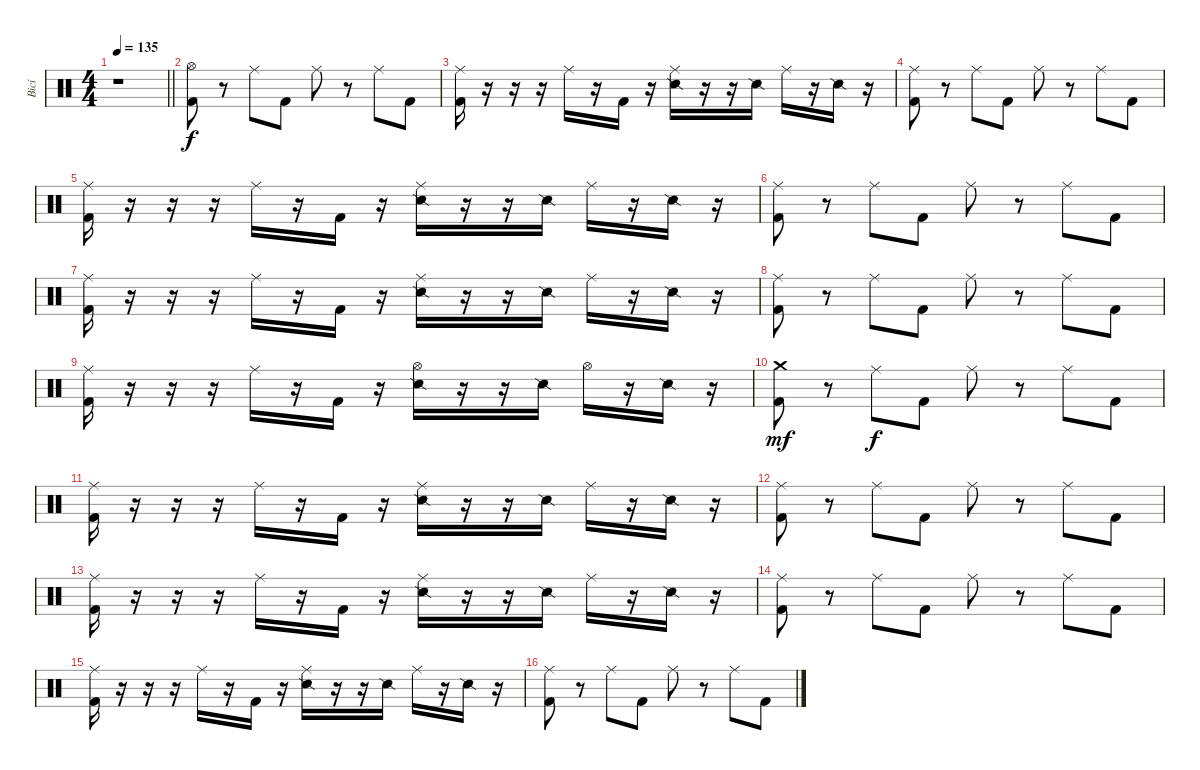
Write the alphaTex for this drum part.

\track ("Bicí" "Bicí") {instrument percussion}
\staff {score}
\articulation defaults
\ts (4 4)
\tempo 135
\clef neutral
\barLineRight lightlight
\ks c
r.1{dy f} |
("Hi-Hat (open)" "Kick (hit) 2").8 r.8 "Ride (middle)".8 "Kick (hit) 2".8 "Ride (middle)".8 r.8 "Ride (middle)".8 "Kick (hit) 2".8 |
("Ride (middle)" "Kick (hit) 2").16 r.16 r.16 r.16 "Ride (middle)".16 r.16 "Kick (hit) 2".16 r.16 ("Ride (middle)" "Snare (side stick) 2").16 r.16 r.16 "Snare (side stick) 2".16 "Ride (middle)".16 r.16 "Snare (side stick) 2".16 r.16 |
("Ride (middle)" "Kick (hit) 2").8 r.8 "Ride (middle)".8 "Kick (hit) 2".8 "Ride (middle)".8 r.8 "Ride (middle)".8 "Kick (hit) 2".8 |
("Ride (middle)" "Kick (hit) 2").16 r.16 r.16 r.16 "Ride (middle)".16 r.16 "Kick (hit) 2".16 r.16 ("Ride (middle)" "Snare (side stick) 2").16 r.16 r.16 "Snare (side stick) 2".16 "Ride (middle)".16 r.16 "Snare (side stick) 2".16 r.16 |
("Ride (middle)" "Kick (hit) 2").8 r.8 "Ride (middle)".8 "Kick (hit) 2".8 "Ride (middle)".8 r.8 "Ride (middle)".8 "Kick (hit) 2".8 |
("Ride (middle)" "Kick (hit) 2").16 r.16 r.16 r.16 "Ride (middle)".16 r.16 "Kick (hit) 2".16 r.16 ("Ride (middle)" "Snare (side stick) 2").16 r.16 r.16 "Snare (side stick) 2".16 "Ride (middle)".16 r.16 "Snare (side stick) 2".16 r.16 |
("Ride (middle)" "Kick (hit) 2").8 r.8 "Ride (middle)".8 "Kick (hit) 2".8 "Ride (middle)".8 r.8 "Ride (middle)".8 "Kick (hit) 2".8 |
("Ride (middle)" "Kick (hit) 2").16 r.16 r.16 r.16 "Ride (middle)".16 r.16 "Kick (hit) 2".16 r.16 ("Hi-Hat (open)" "Snare (side stick) 2").16 r.16 r.16 "Snare (side stick) 2".16 "Hi-Hat (open)".16 r.16 "Snare (side stick) 2".16 r.16 |
("Crash medium (hit)" "Kick (hit) 2").8{dy mf} r.8 "Ride (middle)".8{dy f} "Kick (hit) 2".8 "Ride (middle)".8 r.8 "Ride (middle)".8 "Kick (hit) 2".8 |
("Ride (middle)" "Kick (hit) 2").16 r.16 r.16 r.16 "Ride (middle)".16 r.16 "Kick (hit) 2".16 r.16 ("Ride (middle)" "Snare (side stick) 2").16 r.16 r.16 "Snare (side stick) 2".16 "Ride (middle)".16 r.16 "Snare (side stick) 2".16 r.16 |
("Ride (middle)" "Kick (hit) 2").8 r.8 "Ride (middle)".8 "Kick (hit) 2".8 "Ride (middle)".8 r.8 "Ride (middle)".8 "Kick (hit) 2".8 |
("Ride (middle)" "Kick (hit) 2").16 r.16 r.16 r.16 "Ride (middle)".16 r.16 "Kick (hit) 2".16 r.16 ("Ride (middle)" "Snare (side stick) 2").16 r.16 r.16 "Snare (side stick) 2".16 "Ride (middle)".16 r.16 "Snare (side stick) 2".16 r.16 |
("Ride (middle)" "Kick (hit) 2").8 r.8 "Ride (middle)".8 "Kick (hit) 2".8 "Ride (middle)".8 r.8 "Ride (middle)".8 "Kick (hit) 2".8 |
("Ride (middle)" "Kick (hit) 2").16 r.16 r.16 r.16 "Ride (middle)".16 r.16 "Kick (hit) 2".16 r.16 ("Ride (middle)" "Snare (side stick) 2").16 r.16 r.16 "Snare (side stick) 2".16 "Ride (middle)".16 r.16 "Snare (side stick) 2".16 r.16 |
("Ride (middle)" "Kick (hit) 2").8 r.8 "Ride (middle)".8 "Kick (hit) 2".8 "Ride (middle)".8 r.8 "Ride (middle)".8 "Kick (hit) 2".8
